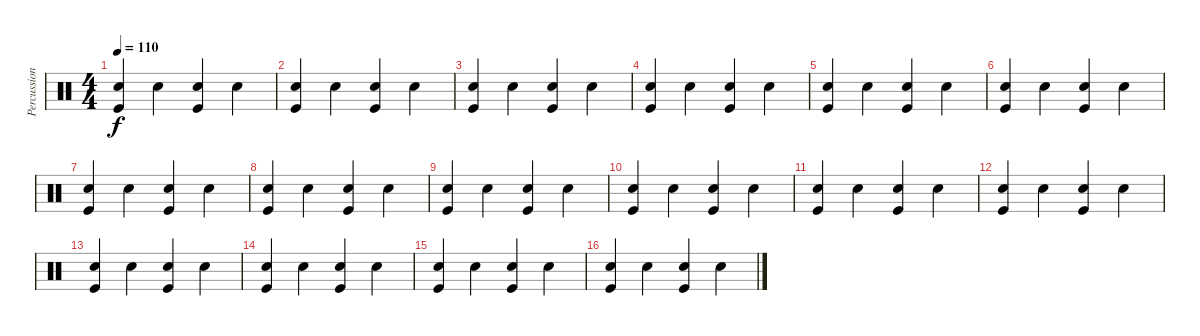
\track ("Percussions" "Percussion") {instrument percussion}
\staff {score}
\articulation defaults
\ts (4 4)
\tempo 110
\clef neutral
\ks c
("Snare (hit) 2" "Kick (hit)").4{dy f} "Snare (hit) 2".4 ("Snare (hit) 2" "Kick (hit)").4 "Snare (hit) 2".4 |
("Snare (hit) 2" "Kick (hit)").4 "Snare (hit) 2".4 ("Snare (hit) 2" "Kick (hit)").4 "Snare (hit) 2".4 |
("Snare (hit) 2" "Kick (hit)").4 "Snare (hit) 2".4 ("Snare (hit) 2" "Kick (hit)").4 "Snare (hit) 2".4 |
("Snare (hit) 2" "Kick (hit)").4 "Snare (hit) 2".4 ("Snare (hit) 2" "Kick (hit)").4 "Snare (hit) 2".4 |
("Snare (hit) 2" "Kick (hit)").4 "Snare (hit) 2".4 ("Snare (hit) 2" "Kick (hit)").4 "Snare (hit) 2".4 |
("Snare (hit) 2" "Kick (hit)").4 "Snare (hit) 2".4 ("Snare (hit) 2" "Kick (hit)").4 "Snare (hit) 2".4 |
("Snare (hit) 2" "Kick (hit)").4 "Snare (hit) 2".4 ("Snare (hit) 2" "Kick (hit)").4 "Snare (hit) 2".4 |
("Snare (hit) 2" "Kick (hit)").4 "Snare (hit) 2".4 ("Snare (hit) 2" "Kick (hit)").4 "Snare (hit) 2".4 |
("Snare (hit) 2" "Kick (hit)").4 "Snare (hit) 2".4 ("Snare (hit) 2" "Kick (hit)").4 "Snare (hit) 2".4 |
("Snare (hit) 2" "Kick (hit)").4 "Snare (hit) 2".4 ("Snare (hit) 2" "Kick (hit)").4 "Snare (hit) 2".4 |
("Snare (hit) 2" "Kick (hit)").4 "Snare (hit) 2".4 ("Snare (hit) 2" "Kick (hit)").4 "Snare (hit) 2".4 |
("Snare (hit) 2" "Kick (hit)").4 "Snare (hit) 2".4 ("Snare (hit) 2" "Kick (hit)").4 "Snare (hit) 2".4 |
("Snare (hit) 2" "Kick (hit)").4 "Snare (hit) 2".4 ("Snare (hit) 2" "Kick (hit)").4 "Snare (hit) 2".4 |
("Snare (hit) 2" "Kick (hit)").4 "Snare (hit) 2".4 ("Snare (hit) 2" "Kick (hit)").4 "Snare (hit) 2".4 |
("Snare (hit) 2" "Kick (hit)").4 "Snare (hit) 2".4 ("Snare (hit) 2" "Kick (hit)").4 "Snare (hit) 2".4 |
("Snare (hit) 2" "Kick (hit)").4 "Snare (hit) 2".4 ("Snare (hit) 2" "Kick (hit)").4 "Snare (hit) 2".4
